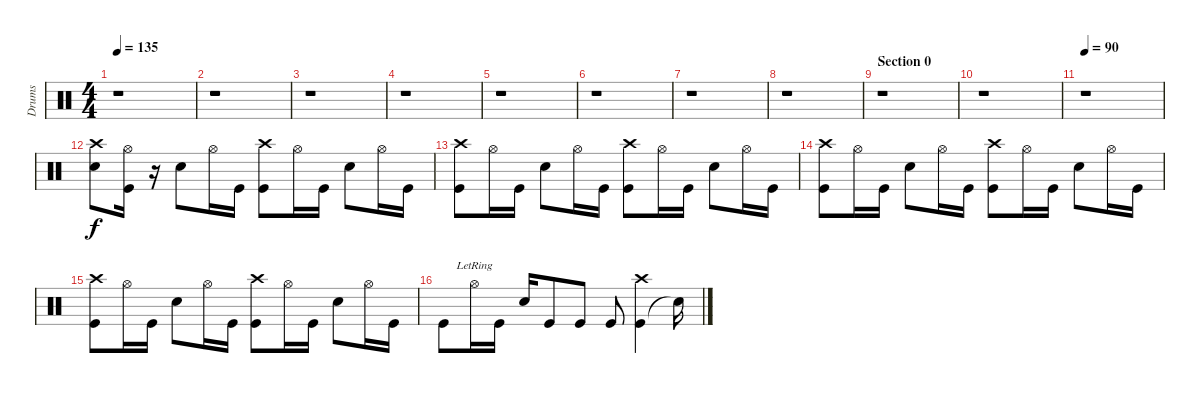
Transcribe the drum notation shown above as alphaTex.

\track ("Drums" "Drums") {instrument percussion}
\staff {score}
\articulation defaults
\ts (4 4)
\tempo 135
\clef neutral
\ks c
r.1{dy f} |
r.1 |
r.1 |
r.1 |
r.1 |
r.1 |
r.1 |
r.1 |
\section ("" "Section 0")
r.1 |
r.1 |
\tempo 90
r.1 |
("Snare (hit) 2" "Crash high (hit)").8 ("Kick (hit)" "Hi-Hat (open)").16 r.16 "Snare (hit) 2".8 "Hi-Hat (open)".16 "Kick (hit)".16 ("Kick (hit)" "Crash high (hit)").8 "Hi-Hat (open)".16 "Kick (hit)".16 "Snare (hit) 2".8 "Hi-Hat (open)".16 "Kick (hit)".16 |
("Kick (hit)" "Crash high (hit)").8 "Hi-Hat (open)".16 "Kick (hit)".16 "Snare (hit) 2".8 "Hi-Hat (open)".16 "Kick (hit)".16 ("Kick (hit)" "Crash high (hit)").8 "Hi-Hat (open)".16 "Kick (hit)".16 "Snare (hit) 2".8 "Hi-Hat (open)".16 "Kick (hit)".16 |
("Kick (hit)" "Crash high (hit)").8 "Hi-Hat (open)".16 "Kick (hit)".16 "Snare (hit) 2".8 "Hi-Hat (open)".16 "Kick (hit)".16 ("Kick (hit)" "Crash high (hit)").8 "Hi-Hat (open)".16 "Kick (hit)".16 "Snare (hit) 2".8 "Hi-Hat (open)".16 "Kick (hit)".16 |
("Kick (hit)" "Crash high (hit)").8 "Hi-Hat (open)".16 "Kick (hit)".16 "Snare (hit) 2".8 "Hi-Hat (open)".16 "Kick (hit)".16 ("Kick (hit)" "Crash high (hit)").8 "Hi-Hat (open)".16 "Kick (hit)".16 "Snare (hit) 2".8 "Hi-Hat (open)".16 "Kick (hit)".16 |
"Kick (hit)".8 "Hi-Hat (open)"{lr}.16 "Kick (hit)".16 "Snare (hit) 2".16 "Kick (hit)".8 "Kick (hit)".8 "Kick (hit)".8 ("Kick (hit)" "Crash high (hit)").4 "Snare (hit)"{t}.16
